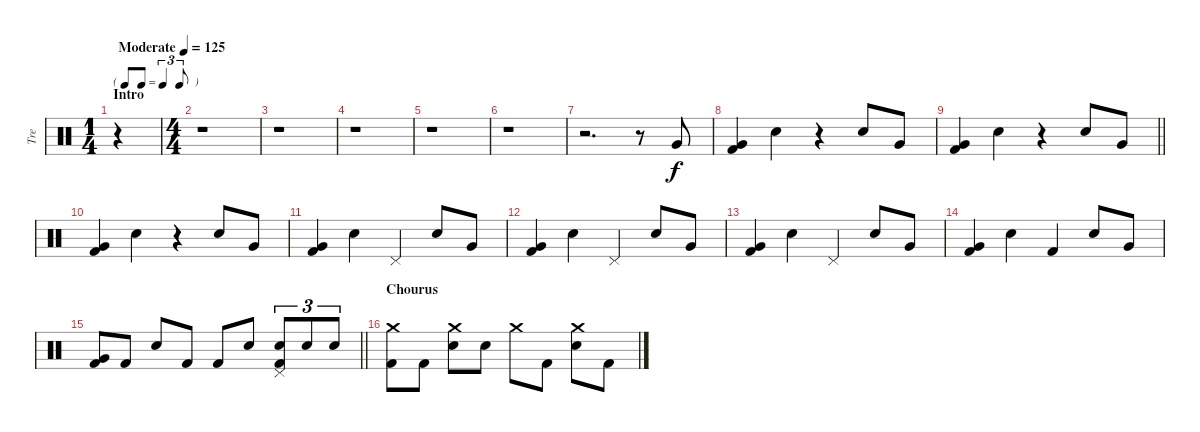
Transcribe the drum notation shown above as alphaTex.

\track ("Tre" "Tre") {instrument percussion}
\staff {score}
\articulation defaults
\ts (1 4)
\tf triplet8th
\section ("" "Intro")
\tempo (125 "Moderate")
\clef neutral
\ks c
r.4{dy f} |
\ts (4 4)
r.1 |
r.1 |
r.1 |
r.1 |
r.1 |
r.2{d} r.8 "Very Low Tom (hit)".8 |
("Very Low Tom (hit)" "Kick (hit) 2").4 "Snare (hit) 2".4 r.4 "Snare (hit) 2".8 "Very Low Tom (hit)".8 |
\barLineRight lightlight
("Very Low Tom (hit)" "Kick (hit) 2").4 "Snare (hit) 2".4 r.4 "Snare (hit) 2".8 "Very Low Tom (hit)".8 |
("Very Low Tom (hit)" "Kick (hit) 2").4 "Snare (hit) 2".4 r.4 "Snare (hit) 2".8 "Very Low Tom (hit)".8 |
("Very Low Tom (hit)" "Kick (hit) 2").4 "Snare (hit) 2".4 "Pedal Hi-Hat (hit)".4 "Snare (hit) 2".8 "Very Low Tom (hit)".8 |
("Very Low Tom (hit)" "Kick (hit) 2").4 "Snare (hit) 2".4 "Pedal Hi-Hat (hit)".4 "Snare (hit) 2".8 "Very Low Tom (hit)".8 |
("Very Low Tom (hit)" "Kick (hit) 2").4 "Snare (hit) 2".4 "Pedal Hi-Hat (hit)".4 "Snare (hit) 2".8 "Very Low Tom (hit)".8 |
("Very Low Tom (hit)" "Kick (hit) 2").4 "Snare (hit) 2".4 "Kick (hit) 2".4 "Snare (hit) 2".8 "Very Low Tom (hit)".8 |
\barLineRight lightlight
("Very Low Tom (hit)" "Kick (hit) 2").8 "Kick (hit) 2".8 "Snare (hit) 2".8 "Kick (hit) 2".8 "Kick (hit) 2".8 "Snare (hit) 2".8 ("Snare (hit) 2" "Pedal Hi-Hat (hit)" "Kick (hit) 2").8{tu (3 2)} "Snare (hit) 2".8{tu (3 2)} "Snare (hit) 2".8{tu (3 2)} |
\section ("" "Chourus")
("Crash medium (hit)" "Kick (hit) 2").8 "Kick (hit) 2".8 ("Crash medium (hit)" "Snare (hit) 2").8 "Snare (hit) 2".8 "Crash medium (hit)".8 "Kick (hit) 2".8 ("Crash medium (hit)" "Snare (hit) 2").8 "Kick (hit) 2".8
